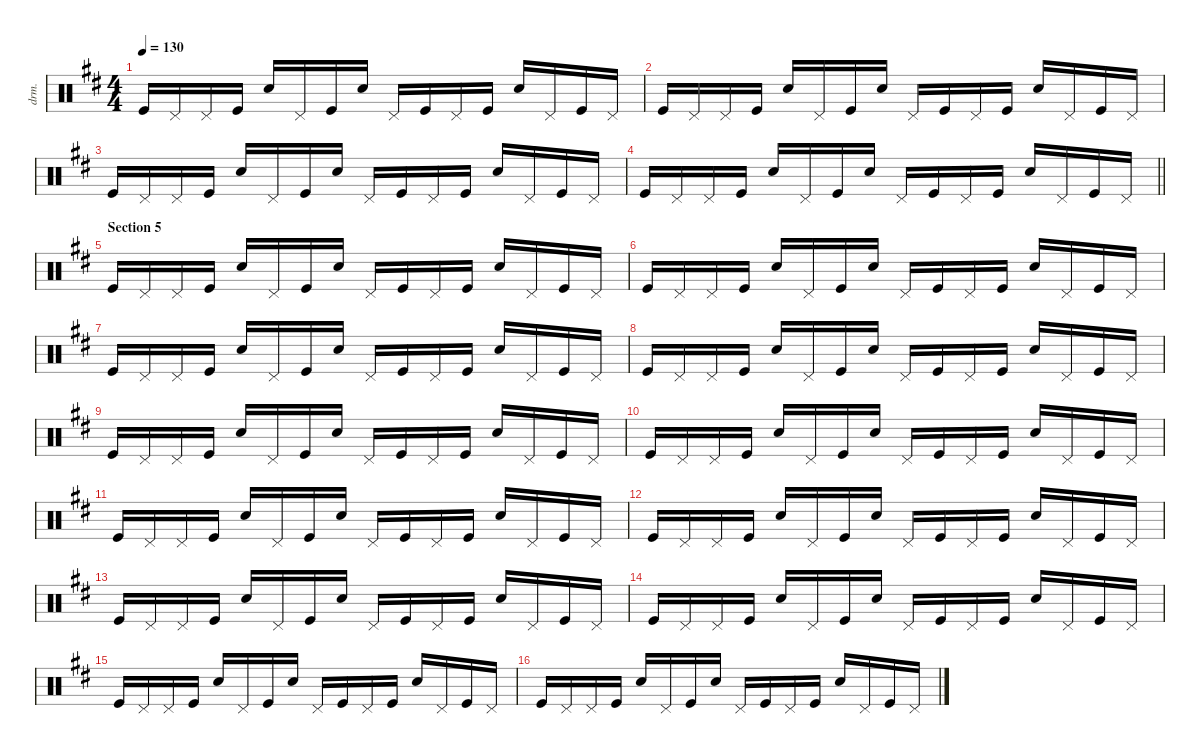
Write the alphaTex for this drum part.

\defaultSystemsLayout 4
\hideDynamics
\bracketExtendMode nobrackets
\otherSystemsTrackNameOrientation horizontal
\track ("Percussion" "drm.") {instrument percussion}
\staff {score}
\articulation defaults
\ts (4 4)
\tempo 130
\clef neutral
\ks d "Kick (hit)"{acc forcenatural}.16{dy f} "Pedal Hi-Hat (hit)"{acc forcenatural}.16 "Pedal Hi-Hat (hit)"{acc forcenatural}.16 "Kick (hit)"{acc forcenatural}.16 "Snare (hit) 2"{acc forcenatural}.16 "Pedal Hi-Hat (hit)"{acc forcenatural}.16 "Kick (hit)"{acc forcenatural}.16 "Snare (hit) 2"{acc forcenatural}.16 "Pedal Hi-Hat (hit)"{acc forcenatural}.16 "Kick (hit)"{acc forcenatural}.16 "Pedal Hi-Hat (hit)"{acc forcenatural}.16 "Kick (hit)"{acc forcenatural}.16 "Snare (hit) 2"{acc forcenatural}.16 "Pedal Hi-Hat (hit)"{acc forcenatural}.16 "Kick (hit)"{acc forcenatural}.16 "Pedal Hi-Hat (hit)"{acc forcenatural}.16
|
"Kick (hit)"{acc forcenatural}.16 "Pedal Hi-Hat (hit)"{acc forcenatural}.16 "Pedal Hi-Hat (hit)"{acc forcenatural}.16 "Kick (hit)"{acc forcenatural}.16 "Snare (hit) 2"{acc forcenatural}.16 "Pedal Hi-Hat (hit)"{acc forcenatural}.16 "Kick (hit)"{acc forcenatural}.16 "Snare (hit) 2"{acc forcenatural}.16 "Pedal Hi-Hat (hit)"{acc forcenatural}.16 "Kick (hit)"{acc forcenatural}.16 "Pedal Hi-Hat (hit)"{acc forcenatural}.16 "Kick (hit)"{acc forcenatural}.16 "Snare (hit) 2"{acc forcenatural}.16 "Pedal Hi-Hat (hit)"{acc forcenatural}.16 "Kick (hit)"{acc forcenatural}.16 "Pedal Hi-Hat (hit)"{acc forcenatural}.16 |
"Kick (hit)"{acc forcenatural}.16 "Pedal Hi-Hat (hit)"{acc forcenatural}.16 "Pedal Hi-Hat (hit)"{acc forcenatural}.16 "Kick (hit)"{acc forcenatural}.16 "Snare (hit) 2"{acc forcenatural}.16 "Pedal Hi-Hat (hit)"{acc forcenatural}.16 "Kick (hit)"{acc forcenatural}.16 "Snare (hit) 2"{acc forcenatural}.16 "Pedal Hi-Hat (hit)"{acc forcenatural}.16 "Kick (hit)"{acc forcenatural}.16 "Pedal Hi-Hat (hit)"{acc forcenatural}.16 "Kick (hit)"{acc forcenatural}.16 "Snare (hit) 2"{acc forcenatural}.16 "Pedal Hi-Hat (hit)"{acc forcenatural}.16 "Kick (hit)"{acc forcenatural}.16 "Pedal Hi-Hat (hit)"{acc forcenatural}.16 |
\barLineRight lightlight "Kick (hit)"{acc forcenatural}.16 "Pedal Hi-Hat (hit)"{acc forcenatural}.16 "Pedal Hi-Hat (hit)"{acc forcenatural}.16 "Kick (hit)"{acc forcenatural}.16 "Snare (hit) 2"{acc forcenatural}.16 "Pedal Hi-Hat (hit)"{acc forcenatural}.16 "Kick (hit)"{acc forcenatural}.16 "Snare (hit) 2"{acc forcenatural}.16 "Pedal Hi-Hat (hit)"{acc forcenatural}.16 "Kick (hit)"{acc forcenatural}.16 "Pedal Hi-Hat (hit)"{acc forcenatural}.16 "Kick (hit)"{acc forcenatural}.16 "Snare (hit) 2"{acc forcenatural}.16 "Pedal Hi-Hat (hit)"{acc forcenatural}.16 "Kick (hit)"{acc forcenatural}.16 "Pedal Hi-Hat (hit)"{acc forcenatural}.16
|
\section ("" "Section 5")
"Kick (hit)"{acc forcenatural}.16 "Pedal Hi-Hat (hit)"{acc forcenatural}.16 "Pedal Hi-Hat (hit)"{acc forcenatural}.16 "Kick (hit)"{acc forcenatural}.16 "Snare (hit) 2"{acc forcenatural}.16 "Pedal Hi-Hat (hit)"{acc forcenatural}.16 "Kick (hit)"{acc forcenatural}.16 "Snare (hit) 2"{acc forcenatural}.16 "Pedal Hi-Hat (hit)"{acc forcenatural}.16 "Kick (hit)"{acc forcenatural}.16 "Pedal Hi-Hat (hit)"{acc forcenatural}.16 "Kick (hit)"{acc forcenatural}.16 "Snare (hit) 2"{acc forcenatural}.16 "Pedal Hi-Hat (hit)"{acc forcenatural}.16 "Kick (hit)"{acc forcenatural}.16 "Pedal Hi-Hat (hit)"{acc forcenatural}.16 |
"Kick (hit)"{acc forcenatural}.16 "Pedal Hi-Hat (hit)"{acc forcenatural}.16 "Pedal Hi-Hat (hit)"{acc forcenatural}.16 "Kick (hit)"{acc forcenatural}.16 "Snare (hit) 2"{acc forcenatural}.16 "Pedal Hi-Hat (hit)"{acc forcenatural}.16 "Kick (hit)"{acc forcenatural}.16 "Snare (hit) 2"{acc forcenatural}.16 "Pedal Hi-Hat (hit)"{acc forcenatural}.16 "Kick (hit)"{acc forcenatural}.16 "Pedal Hi-Hat (hit)"{acc forcenatural}.16 "Kick (hit)"{acc forcenatural}.16 "Snare (hit) 2"{acc forcenatural}.16 "Pedal Hi-Hat (hit)"{acc forcenatural}.16 "Kick (hit)"{acc forcenatural}.16 "Pedal Hi-Hat (hit)"{acc forcenatural}.16 |
"Kick (hit)"{acc forcenatural}.16 "Pedal Hi-Hat (hit)"{acc forcenatural}.16 "Pedal Hi-Hat (hit)"{acc forcenatural}.16 "Kick (hit)"{acc forcenatural}.16 "Snare (hit) 2"{acc forcenatural}.16 "Pedal Hi-Hat (hit)"{acc forcenatural}.16 "Kick (hit)"{acc forcenatural}.16 "Snare (hit) 2"{acc forcenatural}.16 "Pedal Hi-Hat (hit)"{acc forcenatural}.16 "Kick (hit)"{acc forcenatural}.16 "Pedal Hi-Hat (hit)"{acc forcenatural}.16 "Kick (hit)"{acc forcenatural}.16 "Snare (hit) 2"{acc forcenatural}.16 "Pedal Hi-Hat (hit)"{acc forcenatural}.16 "Kick (hit)"{acc forcenatural}.16 "Pedal Hi-Hat (hit)"{acc forcenatural}.16 |
"Kick (hit)"{acc forcenatural}.16 "Pedal Hi-Hat (hit)"{acc forcenatural}.16 "Pedal Hi-Hat (hit)"{acc forcenatural}.16 "Kick (hit)"{acc forcenatural}.16 "Snare (hit) 2"{acc forcenatural}.16 "Pedal Hi-Hat (hit)"{acc forcenatural}.16 "Kick (hit)"{acc forcenatural}.16 "Snare (hit) 2"{acc forcenatural}.16 "Pedal Hi-Hat (hit)"{acc forcenatural}.16 "Kick (hit)"{acc forcenatural}.16 "Pedal Hi-Hat (hit)"{acc forcenatural}.16 "Kick (hit)"{acc forcenatural}.16 "Snare (hit) 2"{acc forcenatural}.16 "Pedal Hi-Hat (hit)"{acc forcenatural}.16 "Kick (hit)"{acc forcenatural}.16 "Pedal Hi-Hat (hit)"{acc forcenatural}.16 |
"Kick (hit)"{acc forcenatural}.16 "Pedal Hi-Hat (hit)"{acc forcenatural}.16 "Pedal Hi-Hat (hit)"{acc forcenatural}.16 "Kick (hit)"{acc forcenatural}.16 "Snare (hit) 2"{acc forcenatural}.16 "Pedal Hi-Hat (hit)"{acc forcenatural}.16 "Kick (hit)"{acc forcenatural}.16 "Snare (hit) 2"{acc forcenatural}.16 "Pedal Hi-Hat (hit)"{acc forcenatural}.16 "Kick (hit)"{acc forcenatural}.16 "Pedal Hi-Hat (hit)"{acc forcenatural}.16 "Kick (hit)"{acc forcenatural}.16 "Snare (hit) 2"{acc forcenatural}.16 "Pedal Hi-Hat (hit)"{acc forcenatural}.16 "Kick (hit)"{acc forcenatural}.16 "Pedal Hi-Hat (hit)"{acc forcenatural}.16 |
"Kick (hit)"{acc forcenatural}.16 "Pedal Hi-Hat (hit)"{acc forcenatural}.16 "Pedal Hi-Hat (hit)"{acc forcenatural}.16 "Kick (hit)"{acc forcenatural}.16 "Snare (hit) 2"{acc forcenatural}.16 "Pedal Hi-Hat (hit)"{acc forcenatural}.16 "Kick (hit)"{acc forcenatural}.16 "Snare (hit) 2"{acc forcenatural}.16 "Pedal Hi-Hat (hit)"{acc forcenatural}.16 "Kick (hit)"{acc forcenatural}.16 "Pedal Hi-Hat (hit)"{acc forcenatural}.16 "Kick (hit)"{acc forcenatural}.16 "Snare (hit) 2"{acc forcenatural}.16 "Pedal Hi-Hat (hit)"{acc forcenatural}.16 "Kick (hit)"{acc forcenatural}.16 "Pedal Hi-Hat (hit)"{acc forcenatural}.16 |
"Kick (hit)"{acc forcenatural}.16 "Pedal Hi-Hat (hit)"{acc forcenatural}.16 "Pedal Hi-Hat (hit)"{acc forcenatural}.16 "Kick (hit)"{acc forcenatural}.16 "Snare (hit) 2"{acc forcenatural}.16 "Pedal Hi-Hat (hit)"{acc forcenatural}.16 "Kick (hit)"{acc forcenatural}.16 "Snare (hit) 2"{acc forcenatural}.16 "Pedal Hi-Hat (hit)"{acc forcenatural}.16 "Kick (hit)"{acc forcenatural}.16 "Pedal Hi-Hat (hit)"{acc forcenatural}.16 "Kick (hit)"{acc forcenatural}.16 "Snare (hit) 2"{acc forcenatural}.16 "Pedal Hi-Hat (hit)"{acc forcenatural}.16 "Kick (hit)"{acc forcenatural}.16 "Pedal Hi-Hat (hit)"{acc forcenatural}.16 |
"Kick (hit)"{acc forcenatural}.16 "Pedal Hi-Hat (hit)"{acc forcenatural}.16 "Pedal Hi-Hat (hit)"{acc forcenatural}.16 "Kick (hit)"{acc forcenatural}.16 "Snare (hit) 2"{acc forcenatural}.16 "Pedal Hi-Hat (hit)"{acc forcenatural}.16 "Kick (hit)"{acc forcenatural}.16 "Snare (hit) 2"{acc forcenatural}.16 "Pedal Hi-Hat (hit)"{acc forcenatural}.16 "Kick (hit)"{acc forcenatural}.16 "Pedal Hi-Hat (hit)"{acc forcenatural}.16 "Kick (hit)"{acc forcenatural}.16 "Snare (hit) 2"{acc forcenatural}.16 "Pedal Hi-Hat (hit)"{acc forcenatural}.16 "Kick (hit)"{acc forcenatural}.16 "Pedal Hi-Hat (hit)"{acc forcenatural}.16 |
"Kick (hit)"{acc forcenatural}.16 "Pedal Hi-Hat (hit)"{acc forcenatural}.16 "Pedal Hi-Hat (hit)"{acc forcenatural}.16 "Kick (hit)"{acc forcenatural}.16 "Snare (hit) 2"{acc forcenatural}.16 "Pedal Hi-Hat (hit)"{acc forcenatural}.16 "Kick (hit)"{acc forcenatural}.16 "Snare (hit) 2"{acc forcenatural}.16 "Pedal Hi-Hat (hit)"{acc forcenatural}.16 "Kick (hit)"{acc forcenatural}.16 "Pedal Hi-Hat (hit)"{acc forcenatural}.16 "Kick (hit)"{acc forcenatural}.16 "Snare (hit) 2"{acc forcenatural}.16 "Pedal Hi-Hat (hit)"{acc forcenatural}.16 "Kick (hit)"{acc forcenatural}.16 "Pedal Hi-Hat (hit)"{acc forcenatural}.16 |
"Kick (hit)"{acc forcenatural}.16 "Pedal Hi-Hat (hit)"{acc forcenatural}.16 "Pedal Hi-Hat (hit)"{acc forcenatural}.16 "Kick (hit)"{acc forcenatural}.16 "Snare (hit) 2"{acc forcenatural}.16 "Pedal Hi-Hat (hit)"{acc forcenatural}.16 "Kick (hit)"{acc forcenatural}.16 "Snare (hit) 2"{acc forcenatural}.16 "Pedal Hi-Hat (hit)"{acc forcenatural}.16 "Kick (hit)"{acc forcenatural}.16 "Pedal Hi-Hat (hit)"{acc forcenatural}.16 "Kick (hit)"{acc forcenatural}.16 "Snare (hit) 2"{acc forcenatural}.16 "Pedal Hi-Hat (hit)"{acc forcenatural}.16 "Kick (hit)"{acc forcenatural}.16 "Pedal Hi-Hat (hit)"{acc forcenatural}.16 |
"Kick (hit)"{acc forcenatural}.16 "Pedal Hi-Hat (hit)"{acc forcenatural}.16 "Pedal Hi-Hat (hit)"{acc forcenatural}.16 "Kick (hit)"{acc forcenatural}.16 "Snare (hit) 2"{acc forcenatural}.16 "Pedal Hi-Hat (hit)"{acc forcenatural}.16 "Kick (hit)"{acc forcenatural}.16 "Snare (hit) 2"{acc forcenatural}.16 "Pedal Hi-Hat (hit)"{acc forcenatural}.16 "Kick (hit)"{acc forcenatural}.16 "Pedal Hi-Hat (hit)"{acc forcenatural}.16 "Kick (hit)"{acc forcenatural}.16 "Snare (hit) 2"{acc forcenatural}.16 "Pedal Hi-Hat (hit)"{acc forcenatural}.16 "Kick (hit)"{acc forcenatural}.16 "Pedal Hi-Hat (hit)"{acc forcenatural}.16 |
"Kick (hit)"{acc forcenatural}.16 "Pedal Hi-Hat (hit)"{acc forcenatural}.16 "Pedal Hi-Hat (hit)"{acc forcenatural}.16 "Kick (hit)"{acc forcenatural}.16 "Snare (hit) 2"{acc forcenatural}.16 "Pedal Hi-Hat (hit)"{acc forcenatural}.16 "Kick (hit)"{acc forcenatural}.16 "Snare (hit) 2"{acc forcenatural}.16 "Pedal Hi-Hat (hit)"{acc forcenatural}.16 "Kick (hit)"{acc forcenatural}.16 "Pedal Hi-Hat (hit)"{acc forcenatural}.16 "Kick (hit)"{acc forcenatural}.16 "Snare (hit) 2"{acc forcenatural}.16 "Pedal Hi-Hat (hit)"{acc forcenatural}.16 "Kick (hit)"{acc forcenatural}.16 "Pedal Hi-Hat (hit)"{acc forcenatural}.16
